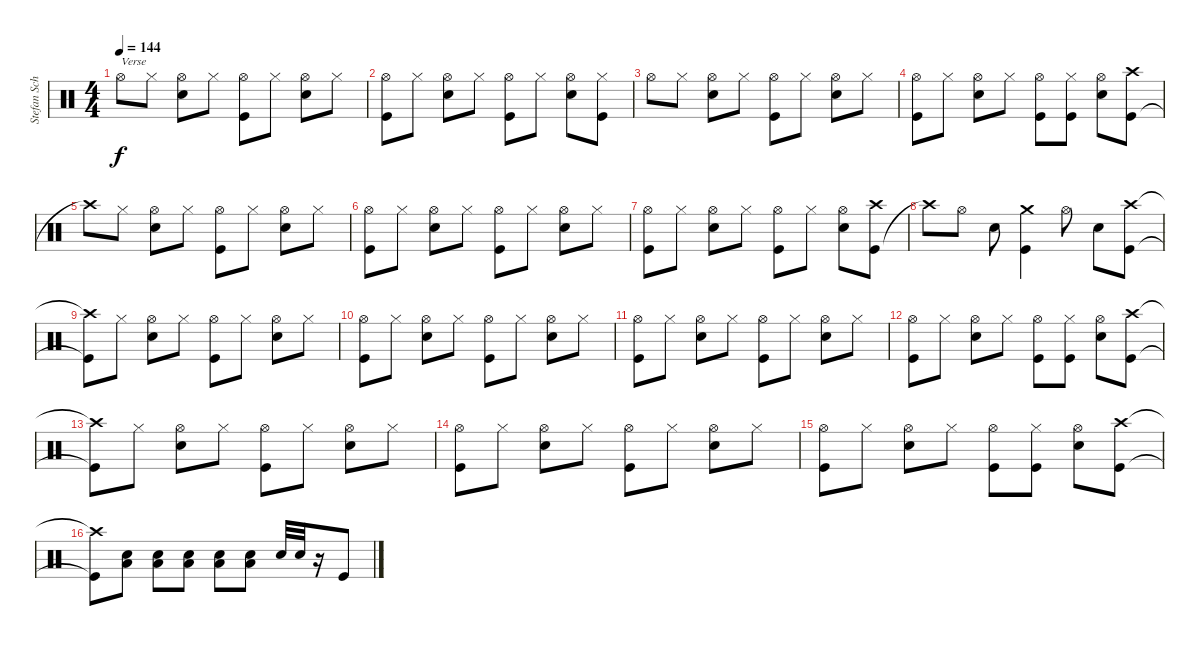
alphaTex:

\track ("Stefan Schwarzmann" "Stefan Sch") {instrument percussion}
\staff {score}
\articulation defaults
\ts (4 4)
\tempo 144
\clef neutral
\ks c "Hi-Hat (open)".8{txt "Verse" dy f} "Hi-Hat (closed)".8
("Snare (hit) 2" "Hi-Hat (open)").8 "Hi-Hat (closed)".8 ("Kick (hit)" "Hi-Hat (open)").8 "Hi-Hat (closed)".8 ("Snare (hit) 2" "Hi-Hat (open)").8 "Hi-Hat (closed)".8 |
("Kick (hit)" "Hi-Hat (open)").8 "Hi-Hat (closed)".8 ("Snare (hit) 2" "Hi-Hat (open)").8 "Hi-Hat (closed)".8 ("Kick (hit)" "Hi-Hat (open)").8 "Hi-Hat (closed)".8 ("Snare (hit) 2" "Hi-Hat (open)").8 ("Hi-Hat (closed)" "Kick (hit)").8 |
"Hi-Hat (open)".8 "Hi-Hat (closed)".8 ("Snare (hit) 2" "Hi-Hat (open)").8 "Hi-Hat (closed)".8 ("Kick (hit)" "Hi-Hat (open)").8 "Hi-Hat (closed)".8 ("Snare (hit) 2" "Hi-Hat (open)").8 "Hi-Hat (closed)".8 |
("Kick (hit)" "Hi-Hat (open)").8 "Hi-Hat (closed)".8 ("Snare (hit) 2" "Hi-Hat (open)").8 "Hi-Hat (closed)".8 ("Kick (hit)" "Hi-Hat (open)").8 ("Kick (hit)" "Hi-Hat (closed)").8 ("Snare (hit) 2" "Hi-Hat (open)").8 ("Kick (hit)" "Crash high (hit)").8 |
"Crash high (hit)"{t}.8 "Hi-Hat (closed)".8 ("Snare (hit) 2" "Hi-Hat (open)").8 "Hi-Hat (closed)".8 ("Kick (hit)" "Hi-Hat (open)").8 "Hi-Hat (closed)".8 ("Snare (hit) 2" "Hi-Hat (open)").8 "Hi-Hat (closed)".8 |
("Kick (hit)" "Hi-Hat (open)").8 "Hi-Hat (closed)".8 ("Snare (hit) 2" "Hi-Hat (open)").8 "Hi-Hat (closed)".8 ("Kick (hit)" "Hi-Hat (open)").8 "Hi-Hat (closed)".8 ("Snare (hit) 2" "Hi-Hat (open)").8 "Hi-Hat (closed)".8 |
("Kick (hit)" "Hi-Hat (open)").8 "Hi-Hat (closed)".8 ("Snare (hit) 2" "Hi-Hat (open)").8 "Hi-Hat (closed)".8 ("Kick (hit)" "Hi-Hat (open)").8 "Hi-Hat (closed)".8 ("Snare (hit) 2" "Hi-Hat (open)").8 ("Kick (hit)" "Crash high (hit)").8 |
"Crash high (hit)"{t}.8 "Hi-Hat (open)".8 "Snare (hit) 2".8 ("Crash medium (hit)" "Kick (hit)").4 "Hi-Hat (open)".8 "Snare (hit) 2".8 ("Kick (hit)" "Crash high (hit)").8 |
("Kick (hit)"{t} "Crash high (hit)"{t}).8 "Hi-Hat (closed)".8 ("Snare (hit) 2" "Hi-Hat (open)").8 "Hi-Hat (closed)".8 ("Kick (hit)" "Hi-Hat (open)").8 "Hi-Hat (closed)".8 ("Snare (hit) 2" "Hi-Hat (open)").8 "Hi-Hat (closed)".8 |
("Kick (hit)" "Hi-Hat (open)").8 "Hi-Hat (closed)".8 ("Snare (hit) 2" "Hi-Hat (open)").8 "Hi-Hat (closed)".8 ("Kick (hit)" "Hi-Hat (open)").8 "Hi-Hat (closed)".8 ("Snare (hit) 2" "Hi-Hat (open)").8 "Hi-Hat (closed)".8 |
("Kick (hit)" "Hi-Hat (open)").8 "Hi-Hat (closed)".8 ("Snare (hit) 2" "Hi-Hat (open)").8 "Hi-Hat (closed)".8 ("Kick (hit)" "Hi-Hat (open)").8 "Hi-Hat (closed)".8 ("Snare (hit) 2" "Hi-Hat (open)").8 "Hi-Hat (closed)".8 |
("Kick (hit)" "Hi-Hat (open)").8 "Hi-Hat (closed)".8 ("Snare (hit) 2" "Hi-Hat (open)").8 "Hi-Hat (closed)".8 ("Kick (hit)" "Hi-Hat (open)").8 ("Kick (hit)" "Hi-Hat (closed)").8 ("Snare (hit) 2" "Hi-Hat (open)").8 ("Kick (hit)" "Crash high (hit)").8 |
("Kick (hit)"{t} "Crash high (hit)"{t}).8 "Hi-Hat (closed)".8 ("Snare (hit) 2" "Hi-Hat (open)").8 "Hi-Hat (closed)".8 ("Kick (hit)" "Hi-Hat (open)").8 "Hi-Hat (closed)".8 ("Snare (hit) 2" "Hi-Hat (open)").8 "Hi-Hat (closed)".8 |
("Kick (hit)" "Hi-Hat (open)").8 "Hi-Hat (closed)".8 ("Snare (hit) 2" "Hi-Hat (open)").8 "Hi-Hat (closed)".8 ("Kick (hit)" "Hi-Hat (open)").8 "Hi-Hat (closed)".8 ("Snare (hit) 2" "Hi-Hat (open)").8 "Hi-Hat (closed)".8 |
("Kick (hit)" "Hi-Hat (open)").8 "Hi-Hat (closed)".8 ("Snare (hit) 2" "Hi-Hat (open)").8 "Hi-Hat (closed)".8 ("Kick (hit)" "Hi-Hat (open)").8 ("Hi-Hat (closed)" "Kick (hit)").8 ("Snare (hit) 2" "Hi-Hat (open)").8 ("Kick (hit)" "Crash high (hit)").8 |
("Kick (hit)"{t} "Crash high (hit)"{t}).8 ("Snare (hit) 2" "Low Floor Tom (hit)").8 ("Snare (hit) 2" "Low Floor Tom (hit)").8 ("Snare (hit) 2" "Low Floor Tom (hit)").8 ("Snare (hit) 2" "Low Floor Tom (hit)").8 ("Snare (hit) 2" "Low Floor Tom (hit)").8 "Snare (hit) 2".32 "Snare (hit) 2".32 r.16 "Kick (hit)".8
